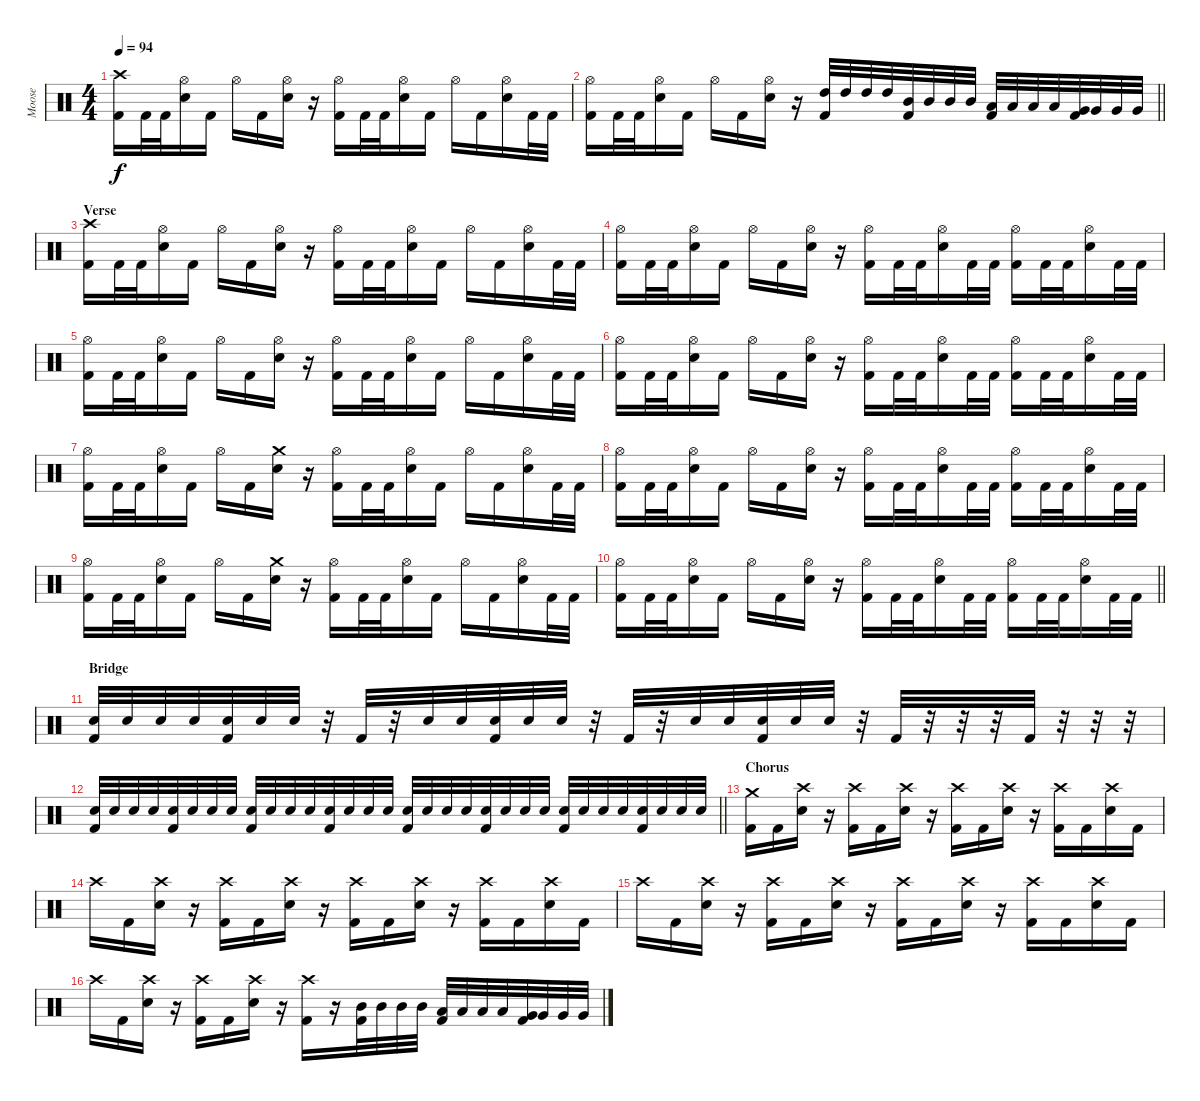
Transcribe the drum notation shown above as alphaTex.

\track ("Moose" "Moose") {instrument percussion}
\staff {score}
\articulation defaults
\ts (4 4)
\tempo 94
\clef neutral
\ks c
("Crash high (hit)" "Kick (hit) 2").16{dy f} "Kick (hit) 2".32 "Kick (hit) 2".32 ("Hi-Hat (open)" "Electric Snare (hit)").16 "Kick (hit) 2".16 "Hi-Hat (open)".16 "Kick (hit) 2".16 ("Hi-Hat (open)" "Electric Snare (hit)").16 r.16 ("Hi-Hat (open)" "Kick (hit) 2").16 "Kick (hit) 2".32 "Kick (hit) 2".32 ("Hi-Hat (open)" "Electric Snare (hit)").16 "Kick (hit) 2".16 "Hi-Hat (open)".16 "Kick (hit) 2".16 ("Hi-Hat (open)" "Electric Snare (hit)").16 "Kick (hit) 2".32 "Kick (hit) 2".32 |
\barLineRight lightlight
("Hi-Hat (open)" "Kick (hit) 2").16 "Kick (hit) 2".32 "Kick (hit) 2".32 ("Hi-Hat (open)" "Electric Snare (hit)").16 "Kick (hit) 2".16 "Hi-Hat (open)".16 "Kick (hit) 2".16 ("Hi-Hat (open)" "Electric Snare (hit)").16 r.16 ("High Tom (hit)" "Kick (hit) 2").32 "High Tom (hit)".32 "High Tom (hit)".32 "High Tom (hit)".32 ("Mid Tom (hit)" "Kick (hit) 2").32 "Mid Tom (hit)".32 "Mid Tom (hit)".32 "Mid Tom (hit)".32 ("Low Tom (hit)" "Kick (hit) 2").32 "Low Tom (hit)".32 "Low Tom (hit)".32 "Low Tom (hit)".32 ("Very Low Tom (hit)" "Kick (hit) 2").32 "Very Low Tom (hit)".32 "Very Low Tom (hit)".32 "Very Low Tom (hit)".32 |
\section ("" "Verse")
("Crash high (hit)" "Kick (hit) 2").16 "Kick (hit) 2".32 "Kick (hit) 2".32 ("Hi-Hat (open)" "Electric Snare (hit)").16 "Kick (hit) 2".16 "Hi-Hat (open)".16 "Kick (hit) 2".16 ("Hi-Hat (open)" "Electric Snare (hit)").16 r.16 ("Hi-Hat (open)" "Kick (hit) 2").16 "Kick (hit) 2".32 "Kick (hit) 2".32 ("Hi-Hat (open)" "Electric Snare (hit)").16 "Kick (hit) 2".16 "Hi-Hat (open)".16 "Kick (hit) 2".16 ("Hi-Hat (open)" "Electric Snare (hit)").16 "Kick (hit) 2".32 "Kick (hit) 2".32 |
("Hi-Hat (open)" "Kick (hit) 2").16 "Kick (hit) 2".32 "Kick (hit) 2".32 ("Hi-Hat (open)" "Electric Snare (hit)").16 "Kick (hit) 2".16 "Hi-Hat (open)".16 "Kick (hit) 2".16 ("Hi-Hat (open)" "Electric Snare (hit)").16 r.16 ("Hi-Hat (open)" "Kick (hit) 2").16 "Kick (hit) 2".32 "Kick (hit) 2".32 ("Hi-Hat (open)" "Electric Snare (hit)").16 "Kick (hit) 2".32 "Kick (hit) 2".32 ("Hi-Hat (open)" "Kick (hit) 2").16 "Kick (hit) 2".32 "Kick (hit) 2".32 ("Hi-Hat (open)" "Electric Snare (hit)").16 "Kick (hit) 2".32 "Kick (hit) 2".32 |
("Hi-Hat (open)" "Kick (hit) 2").16 "Kick (hit) 2".32 "Kick (hit) 2".32 ("Hi-Hat (open)" "Electric Snare (hit)").16 "Kick (hit) 2".16 "Hi-Hat (open)".16 "Kick (hit) 2".16 ("Hi-Hat (open)" "Electric Snare (hit)").16 r.16 ("Hi-Hat (open)" "Kick (hit) 2").16 "Kick (hit) 2".32 "Kick (hit) 2".32 ("Hi-Hat (open)" "Electric Snare (hit)").16 "Kick (hit) 2".16 "Hi-Hat (open)".16 "Kick (hit) 2".16 ("Hi-Hat (open)" "Electric Snare (hit)").16 "Kick (hit) 2".32 "Kick (hit) 2".32 |
("Hi-Hat (open)" "Kick (hit) 2").16 "Kick (hit) 2".32 "Kick (hit) 2".32 ("Hi-Hat (open)" "Electric Snare (hit)").16 "Kick (hit) 2".16 "Hi-Hat (open)".16 "Kick (hit) 2".16 ("Hi-Hat (open)" "Electric Snare (hit)").16 r.16 ("Hi-Hat (open)" "Kick (hit) 2").16 "Kick (hit) 2".32 "Kick (hit) 2".32 ("Hi-Hat (open)" "Electric Snare (hit)").16 "Kick (hit) 2".32 "Kick (hit) 2".32 ("Hi-Hat (open)" "Kick (hit) 2").16 "Kick (hit) 2".32 "Kick (hit) 2".32 ("Hi-Hat (open)" "Electric Snare (hit)").16 "Kick (hit) 2".32 "Kick (hit) 2".32 |
("Hi-Hat (open)" "Kick (hit) 2").16 "Kick (hit) 2".32 "Kick (hit) 2".32 ("Hi-Hat (open)" "Electric Snare (hit)").16 "Kick (hit) 2".16 "Hi-Hat (open)".16 "Kick (hit) 2".16 ("Crash medium (hit)" "Electric Snare (hit)").16 r.16 ("Hi-Hat (open)" "Kick (hit) 2").16 "Kick (hit) 2".32 "Kick (hit) 2".32 ("Hi-Hat (open)" "Electric Snare (hit)").16 "Kick (hit) 2".16 "Hi-Hat (open)".16 "Kick (hit) 2".16 ("Hi-Hat (open)" "Electric Snare (hit)").16 "Kick (hit) 2".32 "Kick (hit) 2".32 |
("Hi-Hat (open)" "Kick (hit) 2").16 "Kick (hit) 2".32 "Kick (hit) 2".32 ("Hi-Hat (open)" "Electric Snare (hit)").16 "Kick (hit) 2".16 "Hi-Hat (open)".16 "Kick (hit) 2".16 ("Hi-Hat (open)" "Electric Snare (hit)").16 r.16 ("Hi-Hat (open)" "Kick (hit) 2").16 "Kick (hit) 2".32 "Kick (hit) 2".32 ("Hi-Hat (open)" "Electric Snare (hit)").16 "Kick (hit) 2".32 "Kick (hit) 2".32 ("Hi-Hat (open)" "Kick (hit) 2").16 "Kick (hit) 2".32 "Kick (hit) 2".32 ("Hi-Hat (open)" "Electric Snare (hit)").16 "Kick (hit) 2".32 "Kick (hit) 2".32 |
("Hi-Hat (open)" "Kick (hit) 2").16 "Kick (hit) 2".32 "Kick (hit) 2".32 ("Hi-Hat (open)" "Electric Snare (hit)").16 "Kick (hit) 2".16 "Hi-Hat (open)".16 "Kick (hit) 2".16 ("Crash medium (hit)" "Electric Snare (hit)").16 r.16 ("Hi-Hat (open)" "Kick (hit) 2").16 "Kick (hit) 2".32 "Kick (hit) 2".32 ("Hi-Hat (open)" "Electric Snare (hit)").16 "Kick (hit) 2".16 "Hi-Hat (open)".16 "Kick (hit) 2".16 ("Hi-Hat (open)" "Electric Snare (hit)").16 "Kick (hit) 2".32 "Kick (hit) 2".32 |
\barLineRight lightlight
("Hi-Hat (open)" "Kick (hit) 2").16 "Kick (hit) 2".32 "Kick (hit) 2".32 ("Hi-Hat (open)" "Electric Snare (hit)").16 "Kick (hit) 2".16 "Hi-Hat (open)".16 "Kick (hit) 2".16 ("Hi-Hat (open)" "Electric Snare (hit)").16 r.16 ("Hi-Hat (open)" "Kick (hit) 2").16 "Kick (hit) 2".32 "Kick (hit) 2".32 ("Hi-Hat (open)" "Electric Snare (hit)").16 "Kick (hit) 2".32 "Kick (hit) 2".32 ("Hi-Hat (open)" "Kick (hit) 2").16 "Kick (hit) 2".32 "Kick (hit) 2".32 ("Hi-Hat (open)" "Electric Snare (hit)").16 "Kick (hit) 2".32 "Kick (hit) 2".32 |
\section ("" "Bridge")
("Electric Snare (hit)" "Kick (hit) 2").32 "Electric Snare (hit)".32 "Electric Snare (hit)".32 "Electric Snare (hit)".32 ("Electric Snare (hit)" "Kick (hit) 2").32 "Electric Snare (hit)".32 "Electric Snare (hit)".32 r.32 "Kick (hit) 2".32 r.32 "Electric Snare (hit)".32 "Electric Snare (hit)".32 ("Electric Snare (hit)" "Kick (hit) 2").32 "Electric Snare (hit)".32 "Electric Snare (hit)".32 r.32 "Kick (hit) 2".32 r.32 "Electric Snare (hit)".32 "Electric Snare (hit)".32 ("Electric Snare (hit)" "Kick (hit) 2").32 "Electric Snare (hit)".32 "Electric Snare (hit)".32 r.32 "Kick (hit) 2".32 r.32 r.32 r.32 "Kick (hit) 2".32 r.32 r.32 r.32 |
\barLineRight lightlight
("Electric Snare (hit)" "Kick (hit) 2").32 "Electric Snare (hit)".32 "Electric Snare (hit)".32 "Electric Snare (hit)".32 ("Electric Snare (hit)" "Kick (hit) 2").32 "Electric Snare (hit)".32 "Electric Snare (hit)".32 "Electric Snare (hit)".32 ("Electric Snare (hit)" "Kick (hit) 2").32 "Electric Snare (hit)".32 "Electric Snare (hit)".32 "Electric Snare (hit)".32 ("Electric Snare (hit)" "Kick (hit) 2").32 "Electric Snare (hit)".32 "Electric Snare (hit)".32 "Electric Snare (hit)".32 ("Electric Snare (hit)" "Kick (hit) 2").32 "Electric Snare (hit)".32 "Electric Snare (hit)".32 "Electric Snare (hit)".32 ("Electric Snare (hit)" "Kick (hit) 2").32 "Electric Snare (hit)".32 "Electric Snare (hit)".32 "Electric Snare (hit)".32 ("Electric Snare (hit)" "Kick (hit) 2").32 "Electric Snare (hit)".32 "Electric Snare (hit)".32 "Electric Snare (hit)".32 ("Electric Snare (hit)" "Kick (hit) 2").32 "Electric Snare (hit)".32 "Electric Snare (hit)".32 "Electric Snare (hit)".32 |
\section ("" "Chorus")
("Crash medium (hit)" "Kick (hit) 2").16 "Kick (hit) 2".16 ("Crash high (hit)" "Electric Snare (hit)").16 r.16 ("Crash high (hit)" "Kick (hit) 2").16 "Kick (hit) 2".16 ("Crash high (hit)" "Electric Snare (hit)").16 r.16 ("Crash high (hit)" "Kick (hit) 2").16 "Kick (hit) 2".16 ("Crash high (hit)" "Electric Snare (hit)").16 r.16 ("Crash high (hit)" "Kick (hit) 2").16 "Kick (hit) 2".16 ("Crash high (hit)" "Electric Snare (hit)").16 "Kick (hit) 2".16 |
"Crash high (hit)".16 "Kick (hit) 2".16 ("Crash high (hit)" "Electric Snare (hit)").16 r.16 ("Crash high (hit)" "Kick (hit) 2").16 "Kick (hit) 2".16 ("Crash high (hit)" "Electric Snare (hit)").16 r.16 ("Crash high (hit)" "Kick (hit) 2").16 "Kick (hit) 2".16 ("Crash high (hit)" "Electric Snare (hit)").16 r.16 ("Crash high (hit)" "Kick (hit) 2").16 "Kick (hit) 2".16 ("Crash high (hit)" "Electric Snare (hit)").16 "Kick (hit) 2".16 |
"Crash high (hit)".16 "Kick (hit) 2".16 ("Crash high (hit)" "Electric Snare (hit)").16 r.16 ("Crash high (hit)" "Kick (hit) 2").16 "Kick (hit) 2".16 ("Crash high (hit)" "Electric Snare (hit)").16 r.16 ("Crash high (hit)" "Kick (hit) 2").16 "Kick (hit) 2".16 ("Crash high (hit)" "Electric Snare (hit)").16 r.16 ("Crash high (hit)" "Kick (hit) 2").16 "Kick (hit) 2".16 ("Crash high (hit)" "Electric Snare (hit)").16 "Kick (hit) 2".16 |
"Crash high (hit)".16 "Kick (hit) 2".16 ("Crash high (hit)" "Electric Snare (hit)").16 r.16 ("Crash high (hit)" "Kick (hit) 2").16 "Kick (hit) 2".16 ("Crash high (hit)" "Electric Snare (hit)").16 r.16 ("Crash high (hit)" "Kick (hit) 2").16 r.16 ("Mid Tom (hit)" "Kick (hit) 2").32 "Mid Tom (hit)".32 "Mid Tom (hit)".32 "Mid Tom (hit)".32 ("Low Tom (hit)" "Kick (hit) 2").32 "Low Tom (hit)".32 "Low Tom (hit)".32 "Low Tom (hit)".32 ("Very Low Tom (hit)" "Kick (hit) 2").32 "Very Low Tom (hit)".32 "Very Low Tom (hit)".32 "Very Low Tom (hit)".32
